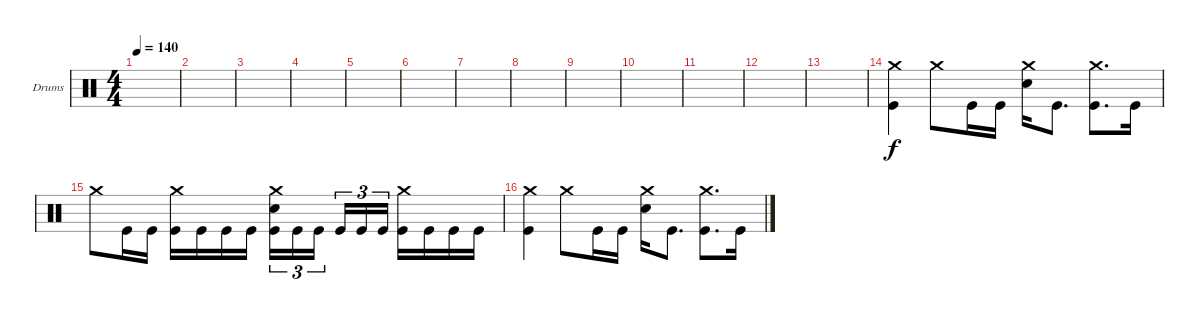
\defaultSystemsLayout 4
\bracketExtendMode groupsimilarinstruments
\firstSystemTrackNameOrientation horizontal
\otherSystemsTrackNameOrientation horizontal
\track ("Drumkit" "Drums") {instrument percussion}
\staff {score}
\articulation defaults
\ts (4 4)
\tempo 140
\clef neutral
\scale
0.333333
\ks c
|
\scale
0.333333 |
\scale
0.333333 |
|
|
|
|
|
|
|
|
|
|
("Crash medium (hit)" "Kick (hit)").4 "Crash medium (hit)".8 "Kick (hit)".16 "Kick (hit)".16 ("Crash medium (hit)" "Snare (hit) 2").16 "Kick (hit)".8{d} ("Crash medium (hit)" "Kick (hit)").8{d} "Kick (hit)".16 |
"Crash medium (hit)".8 "Kick (hit)".16 "Kick (hit)".16 ("Crash medium (hit)" "Kick (hit)").16 "Kick (hit)".16 "Kick (hit)".16 "Kick (hit)".16 ("Crash medium (hit)" "Snare (hit) 2" "Kick (hit)").16{tu (3 2)} "Kick (hit)".16{tu (3 2)} "Kick (hit)".16{tu (3 2)} "Kick (hit)".16{tu (3 2)} "Kick (hit)".16{tu (3 2)} "Kick (hit)".16{tu (3 2)} ("Crash medium (hit)" "Kick (hit)").16 "Kick (hit)".16 "Kick (hit)".16 "Kick (hit)".16 |
("Crash medium (hit)" "Kick (hit)").4 "Crash medium (hit)".8 "Kick (hit)".16 "Kick (hit)".16 ("Crash medium (hit)" "Snare (hit) 2").16 "Kick (hit)".8{d} ("Crash medium (hit)" "Kick (hit)").8{d} "Kick (hit)".16
